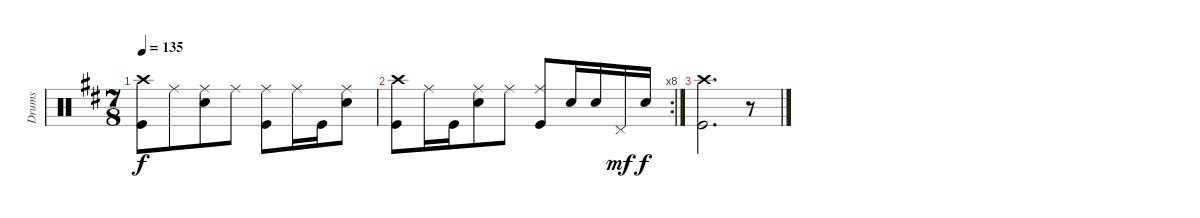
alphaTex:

\track ("Drums" "Drums") {instrument percussion}
\staff {score}
\articulation defaults
\ts (7 8)
\tempo 135
\clef neutral
\ks d
("Crash high (hit)" "Kick (hit)").8{dy f} "Ride (middle)".8 ("Ride (middle)" "Snare (hit) 2").8 "Ride (middle)".8 ("Ride (middle)" "Kick (hit)").8 "Ride (middle)".16 "Kick (hit)".16 ("Ride (middle)" "Snare (hit) 2").8 |
\rc 8
("Crash high (hit)" "Kick (hit)").8 "Ride (middle)".16 "Kick (hit)".16 ("Ride (middle)" "Snare (hit) 2").8 "Ride (middle)".8 ("Ride (middle)" "Kick (hit)").8 "Snare (hit) 2".16 "Snare (hit) 2".16 "Pedal Hi-Hat (hit)".16{dy mf} "Snare (hit) 2".16{dy f} |
("Crash high (hit)" "Kick (hit)").2{d} r.8
